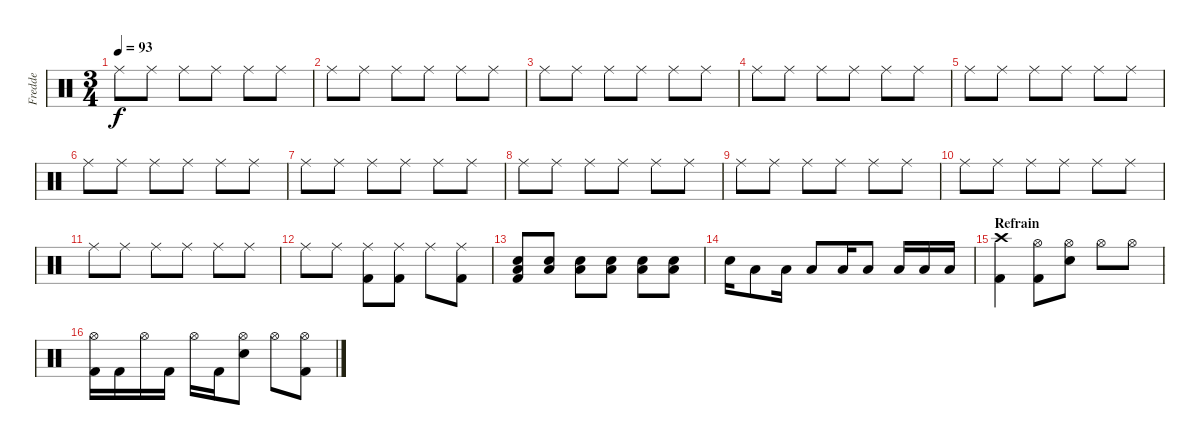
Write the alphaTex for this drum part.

\track ("Fredde" "Fredde") {instrument percussion}
\staff {score}
\articulation defaults
\ts (3 4)
\tempo 93
\clef neutral
\ks c "Ride (middle)".8{dy f} "Ride (middle)".8 "Ride (middle)".8 "Ride (middle)".8 "Ride (middle)".8 "Ride (middle)".8
|
"Ride (middle)".8 "Ride (middle)".8 "Ride (middle)".8 "Ride (middle)".8 "Ride (middle)".8 "Ride (middle)".8 |
"Ride (middle)".8 "Ride (middle)".8 "Ride (middle)".8 "Ride (middle)".8 "Ride (middle)".8 "Ride (middle)".8 |
"Ride (middle)".8 "Ride (middle)".8 "Ride (middle)".8 "Ride (middle)".8 "Ride (middle)".8 "Ride (middle)".8 |
"Ride (middle)".8 "Ride (middle)".8 "Ride (middle)".8 "Ride (middle)".8 "Ride (middle)".8 "Ride (middle)".8 |
"Ride (middle)".8 "Ride (middle)".8 "Ride (middle)".8 "Ride (middle)".8 "Ride (middle)".8 "Ride (middle)".8 |
"Ride (middle)".8 "Ride (middle)".8 "Ride (middle)".8 "Ride (middle)".8 "Ride (middle)".8 "Ride (middle)".8 |
"Ride (middle)".8 "Ride (middle)".8 "Ride (middle)".8 "Ride (middle)".8 "Ride (middle)".8 "Ride (middle)".8 |
"Ride (middle)".8 "Ride (middle)".8 "Ride (middle)".8 "Ride (middle)".8 "Ride (middle)".8 "Ride (middle)".8 |
"Ride (middle)".8 "Ride (middle)".8 "Ride (middle)".8 "Ride (middle)".8 "Ride (middle)".8 "Ride (middle)".8 |
"Ride (middle)".8 "Ride (middle)".8 "Ride (middle)".8 "Ride (middle)".8 "Ride (middle)".8 "Ride (middle)".8 |
"Ride (middle)".8 "Ride (middle)".8 ("Ride (middle)" "Kick (hit) 2").8 ("Ride (middle)" "Kick (hit) 2").8 "Ride (middle)".8 ("Ride (middle)" "Kick (hit) 2").8 |
("Low Floor Tom (hit)" "Snare (hit) 2" "Kick (hit) 2").8 ("Low Floor Tom (hit)" "Snare (hit) 2").8 ("Low Floor Tom (hit)" "Snare (hit) 2").8 ("Low Floor Tom (hit)" "Snare (hit) 2").8 ("Low Floor Tom (hit)" "Snare (hit) 2").8 ("Low Floor Tom (hit)" "Snare (hit) 2").8 |
"Snare (hit) 2".16 "Low Tom (hit)".8 "Low Tom (hit)".16 "Low Floor Tom (hit)".8 "Low Tom (hit)".16 "Low Floor Tom (hit)".8 "Low Tom (hit)".16 "Low Tom (hit)".16 "Low Tom (hit)".16 |
\section ("" "Refrain")
("Crash high (hit)" "Kick (hit) 2").4 ("Hi-Hat (open)" "Kick (hit) 2").8 ("Hi-Hat (open)" "Snare (hit) 2").8 "Hi-Hat (open)".8 "Hi-Hat (open)".8 |
("Hi-Hat (open)" "Kick (hit) 2").16 "Kick (hit) 2".16 "Hi-Hat (open)".16 "Kick (hit) 2".16 "Hi-Hat (open)".16 "Kick (hit) 2".16 ("Hi-Hat (open)" "Snare (hit) 2").8 "Hi-Hat (open)".8 ("Hi-Hat (open)" "Kick (hit) 2").8
